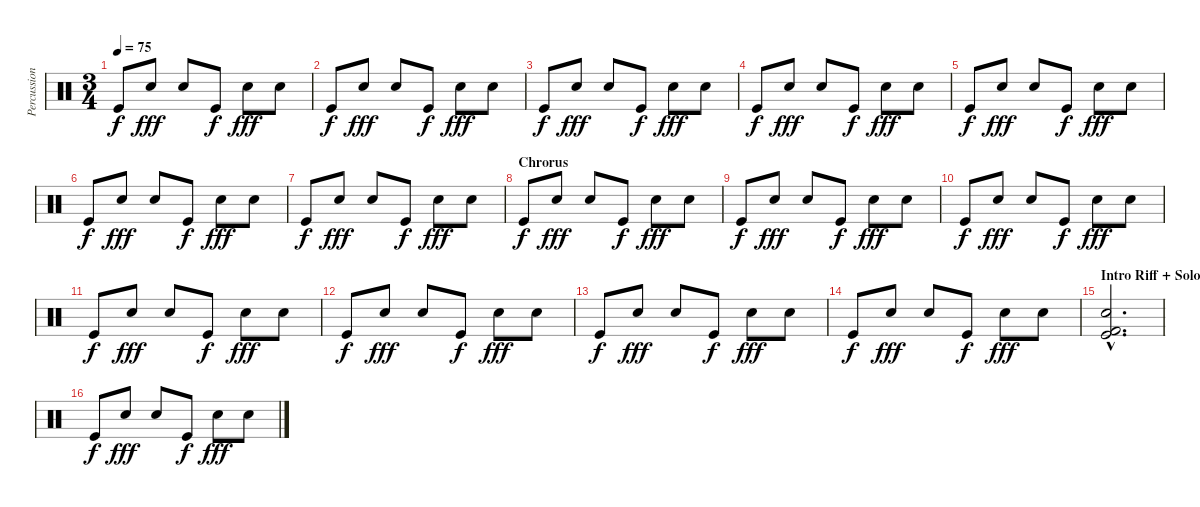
\track ("Percussion" "Percussion") {instrument percussion}
\staff {score}
\articulation defaults
\ts (3 4)
\tempo 75
\clef neutral
\ks c "Kick (hit)".8{dy f} "Snare (hit) 2".8{dy fff} "Snare (hit) 2".8 "Kick (hit)".8{dy f} "Snare (hit) 2".8{dy fff} "Snare (hit) 2".8
|
"Kick (hit)".8{dy f} "Snare (hit) 2".8{dy fff} "Snare (hit) 2".8 "Kick (hit)".8{dy f} "Snare (hit) 2".8{dy fff} "Snare (hit) 2".8 |
"Kick (hit)".8{dy f} "Snare (hit) 2".8{dy fff} "Snare (hit) 2".8 "Kick (hit)".8{dy f} "Snare (hit) 2".8{dy fff} "Snare (hit) 2".8 |
"Kick (hit)".8{dy f} "Snare (hit) 2".8{dy fff} "Snare (hit) 2".8 "Kick (hit)".8{dy f} "Snare (hit) 2".8{dy fff} "Snare (hit) 2".8 |
"Kick (hit)".8{dy f} "Snare (hit) 2".8{dy fff} "Snare (hit) 2".8 "Kick (hit)".8{dy f} "Snare (hit) 2".8{dy fff} "Snare (hit) 2".8 |
"Kick (hit)".8{dy f} "Snare (hit) 2".8{dy fff} "Snare (hit) 2".8 "Kick (hit)".8{dy f} "Snare (hit) 2".8{dy fff} "Snare (hit) 2".8 |
"Kick (hit)".8{dy f} "Snare (hit) 2".8{dy fff} "Snare (hit) 2".8 "Kick (hit)".8{dy f} "Snare (hit) 2".8{dy fff} "Snare (hit) 2".8 |
\section ("" "Chrorus")
"Kick (hit)".8{dy f} "Snare (hit) 2".8{dy fff} "Snare (hit) 2".8 "Kick (hit)".8{dy f} "Snare (hit) 2".8{dy fff} "Snare (hit) 2".8 |
"Kick (hit)".8{dy f} "Snare (hit) 2".8{dy fff} "Snare (hit) 2".8 "Kick (hit)".8{dy f} "Snare (hit) 2".8{dy fff} "Snare (hit) 2".8 |
"Kick (hit)".8{dy f} "Snare (hit) 2".8{dy fff} "Snare (hit) 2".8 "Kick (hit)".8{dy f} "Snare (hit) 2".8{dy fff} "Snare (hit) 2".8 |
"Kick (hit)".8{dy f} "Snare (hit) 2".8{dy fff} "Snare (hit) 2".8 "Kick (hit)".8{dy f} "Snare (hit) 2".8{dy fff} "Snare (hit) 2".8 |
"Kick (hit)".8{dy f} "Snare (hit) 2".8{dy fff} "Snare (hit) 2".8 "Kick (hit)".8{dy f} "Snare (hit) 2".8{dy fff} "Snare (hit) 2".8 |
"Kick (hit)".8{dy f} "Snare (hit) 2".8{dy fff} "Snare (hit) 2".8 "Kick (hit)".8{dy f} "Snare (hit) 2".8{dy fff} "Snare (hit) 2".8 |
"Kick (hit)".8{dy f} "Snare (hit) 2".8{dy fff} "Snare (hit) 2".8 "Kick (hit)".8{dy f} "Snare (hit) 2".8{dy fff} "Snare (hit) 2".8 |
\section ("" "Intro Riff + Solo")
("Snare (hit) 2"{hac} "Kick (hit)"{hac} "Kick (hit) 2"{hac}).2{d} |
"Kick (hit)".8{dy f} "Snare (hit) 2".8{dy fff} "Snare (hit) 2".8 "Kick (hit)".8{dy f} "Snare (hit) 2".8{dy fff} "Snare (hit) 2".8
